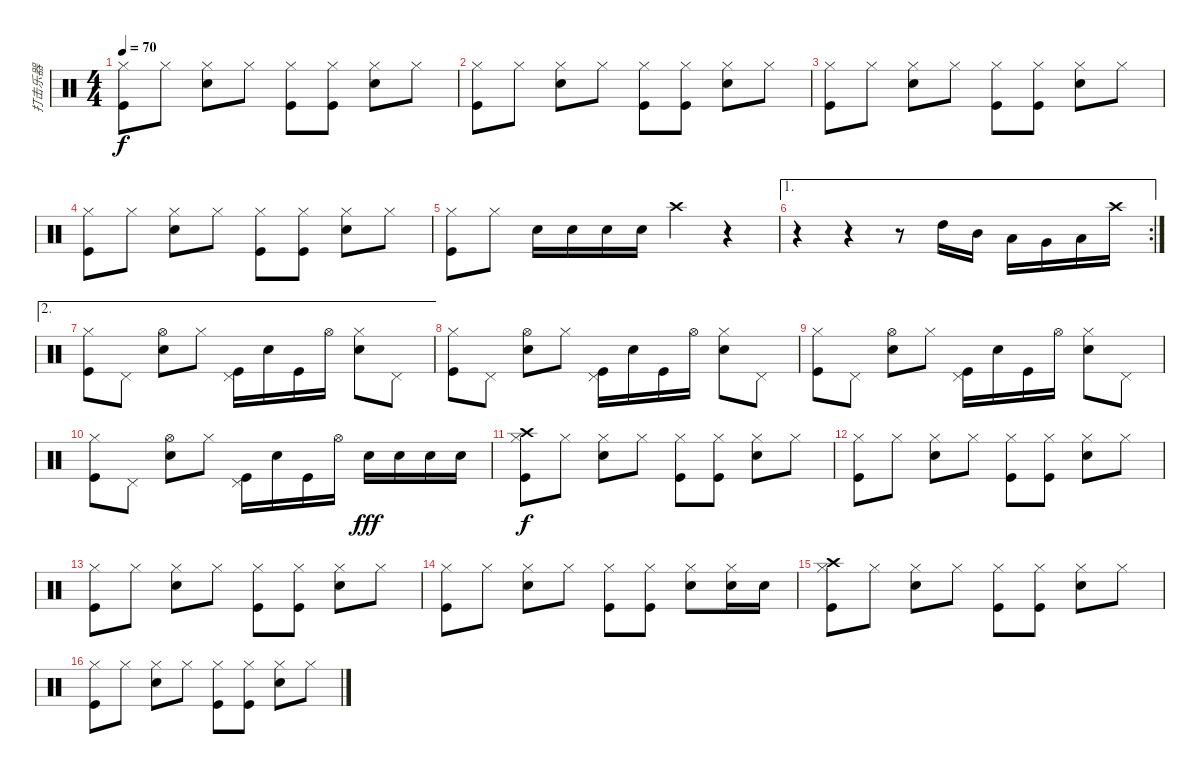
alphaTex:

\track ("打击乐器" "打击乐器") {instrument percussion}
\staff {score}
\articulation defaults
\ts (4 4)
\tempo 70
\clef neutral
\ks c
("Hi-Hat (closed)" "Kick (hit)").8{dy f} "Hi-Hat (closed)".8 ("Hi-Hat (closed)" "Electric Snare (hit)").8 "Hi-Hat (closed)".8 ("Hi-Hat (closed)" "Kick (hit)").8 ("Hi-Hat (closed)" "Kick (hit)").8 ("Hi-Hat (closed)" "Electric Snare (hit)").8 "Hi-Hat (closed)".8 |
("Hi-Hat (closed)" "Kick (hit)").8 "Hi-Hat (closed)".8 ("Hi-Hat (closed)" "Electric Snare (hit)").8 "Hi-Hat (closed)".8 ("Hi-Hat (closed)" "Kick (hit)").8 ("Hi-Hat (closed)" "Kick (hit)").8 ("Hi-Hat (closed)" "Electric Snare (hit)").8 "Hi-Hat (closed)".8 |
("Hi-Hat (closed)" "Kick (hit)").8 "Hi-Hat (closed)".8 ("Hi-Hat (closed)" "Electric Snare (hit)").8 "Hi-Hat (closed)".8 ("Hi-Hat (closed)" "Kick (hit)").8 ("Hi-Hat (closed)" "Kick (hit)").8 ("Hi-Hat (closed)" "Electric Snare (hit)").8 "Hi-Hat (closed)".8 |
("Hi-Hat (closed)" "Kick (hit)").8 "Hi-Hat (closed)".8 ("Hi-Hat (closed)" "Electric Snare (hit)").8 "Hi-Hat (closed)".8 ("Hi-Hat (closed)" "Kick (hit)").8 ("Hi-Hat (closed)" "Kick (hit)").8 ("Hi-Hat (closed)" "Electric Snare (hit)").8 "Hi-Hat (closed)".8 |
("Hi-Hat (closed)" "Kick (hit)").8 "Hi-Hat (closed)".8 "Electric Snare (hit)".16 "Electric Snare (hit)".16 "Electric Snare (hit)".16 "Electric Snare (hit)".16 "Crash high (hit)".4 r.4 |
\ae 1
\rc 2
r.4 r.4 r.8 "High Tom (hit)".16 "Mid Tom (hit)".16 "Low Tom (hit)".16 "Very Low Tom (hit)".16 "Low Floor Tom (hit)".16 "Crash high (hit)".16 |
\ae 2
("Hi-Hat (closed)" "Kick (hit)").8 "Pedal Hi-Hat (hit)".8 ("Hi-Hat (open)" "Electric Snare (hit)").8 "Hi-Hat (closed)".8 ("Pedal Hi-Hat (hit)" "Kick (hit)").16 "Electric Snare (hit)".16 "Kick (hit)".16 "Hi-Hat (open)".16 ("Hi-Hat (closed)" "Electric Snare (hit)").8 "Pedal Hi-Hat (hit)".8 |
("Hi-Hat (closed)" "Kick (hit)").8 "Pedal Hi-Hat (hit)".8 ("Hi-Hat (open)" "Electric Snare (hit)").8 "Hi-Hat (closed)".8 ("Pedal Hi-Hat (hit)" "Kick (hit)").16 "Electric Snare (hit)".16 "Kick (hit)".16 "Hi-Hat (open)".16 ("Hi-Hat (closed)" "Electric Snare (hit)").8 "Pedal Hi-Hat (hit)".8 |
("Hi-Hat (closed)" "Kick (hit)").8 "Pedal Hi-Hat (hit)".8 ("Hi-Hat (open)" "Electric Snare (hit)").8 "Hi-Hat (closed)".8 ("Pedal Hi-Hat (hit)" "Kick (hit)").16 "Electric Snare (hit)".16 "Kick (hit)".16 "Hi-Hat (open)".16 ("Hi-Hat (closed)" "Electric Snare (hit)").8 "Pedal Hi-Hat (hit)".8 |
("Hi-Hat (closed)" "Kick (hit)").8 "Pedal Hi-Hat (hit)".8 ("Hi-Hat (open)" "Electric Snare (hit)").8 "Hi-Hat (closed)".8 ("Pedal Hi-Hat (hit)" "Kick (hit)").16 "Electric Snare (hit)".16 "Kick (hit)".16 "Hi-Hat (open)".16 "Electric Snare (hit)".16{dy fff} "Electric Snare (hit)".16 "Electric Snare (hit)".16 "Electric Snare (hit)".16 |
("Hi-Hat (closed)" "Kick (hit)" "Crash high (hit)").8{dy f} "Hi-Hat (closed)".8 ("Hi-Hat (closed)" "Electric Snare (hit)").8 "Hi-Hat (closed)".8 ("Hi-Hat (closed)" "Kick (hit)").8 ("Hi-Hat (closed)" "Kick (hit)").8 ("Hi-Hat (closed)" "Electric Snare (hit)").8 "Hi-Hat (closed)".8 |
("Hi-Hat (closed)" "Kick (hit)").8 "Hi-Hat (closed)".8 ("Hi-Hat (closed)" "Electric Snare (hit)").8 "Hi-Hat (closed)".8 ("Hi-Hat (closed)" "Kick (hit)").8 ("Hi-Hat (closed)" "Kick (hit)").8 ("Hi-Hat (closed)" "Electric Snare (hit)").8 "Hi-Hat (closed)".8 |
("Hi-Hat (closed)" "Kick (hit)").8 "Hi-Hat (closed)".8 ("Hi-Hat (closed)" "Electric Snare (hit)").8 "Hi-Hat (closed)".8 ("Hi-Hat (closed)" "Kick (hit)").8 ("Hi-Hat (closed)" "Kick (hit)").8 ("Hi-Hat (closed)" "Electric Snare (hit)").8 "Hi-Hat (closed)".8 |
("Hi-Hat (closed)" "Kick (hit)").8 "Hi-Hat (closed)".8 ("Hi-Hat (closed)" "Electric Snare (hit)").8 "Hi-Hat (closed)".8 ("Hi-Hat (closed)" "Kick (hit)").8 ("Hi-Hat (closed)" "Kick (hit)").8 ("Hi-Hat (closed)" "Electric Snare (hit)").8 ("Hi-Hat (closed)" "Electric Snare (hit)").16 "Electric Snare (hit)".16 |
("Hi-Hat (closed)" "Kick (hit)" "Crash high (hit)").8 "Hi-Hat (closed)".8 ("Hi-Hat (closed)" "Electric Snare (hit)").8 "Hi-Hat (closed)".8 ("Hi-Hat (closed)" "Kick (hit)").8 ("Hi-Hat (closed)" "Kick (hit)").8 ("Hi-Hat (closed)" "Electric Snare (hit)").8 "Hi-Hat (closed)".8 |
("Hi-Hat (closed)" "Kick (hit)").8 "Hi-Hat (closed)".8 ("Hi-Hat (closed)" "Electric Snare (hit)").8 "Hi-Hat (closed)".8 ("Hi-Hat (closed)" "Kick (hit)").8 ("Hi-Hat (closed)" "Kick (hit)").8 ("Hi-Hat (closed)" "Electric Snare (hit)").8 "Hi-Hat (closed)".8
